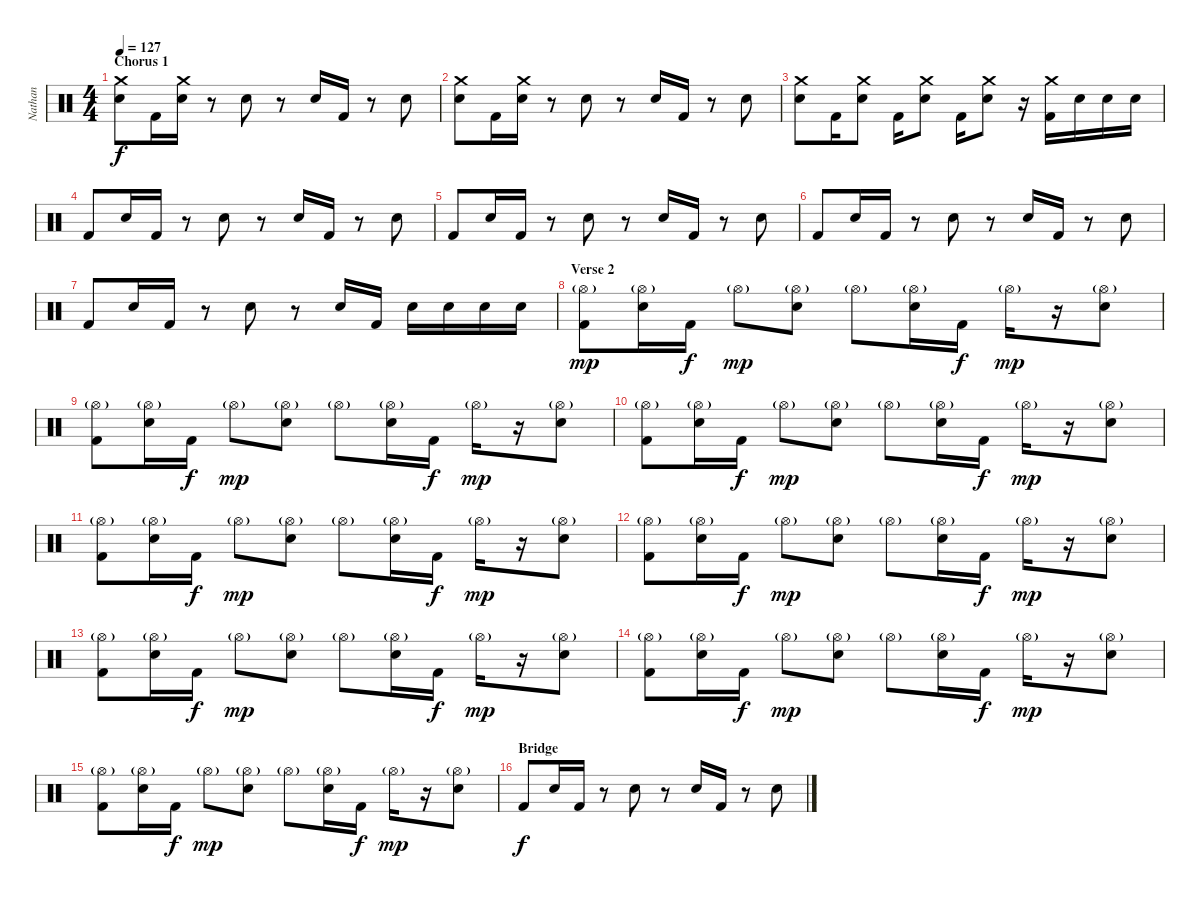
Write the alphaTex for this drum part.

\track ("Nathan" "Nathan") {instrument percussion}
\staff {score}
\articulation defaults
\ts (4 4)
\section ("" "Chorus 1")
\tempo 127
\clef neutral
\ks c
("Crash medium (hit)" "Electric Snare (hit)").8{dy f} "Kick (hit) 2".16 ("Crash medium (hit)" "Electric Snare (hit)").16 r.8 "Electric Snare (hit)".8 r.8 "Electric Snare (hit)".16 "Kick (hit) 2".16 r.8 "Electric Snare (hit)".8 |
("Crash medium (hit)" "Electric Snare (hit)").8 "Kick (hit) 2".16 ("Crash medium (hit)" "Electric Snare (hit)").16 r.8 "Electric Snare (hit)".8 r.8 "Electric Snare (hit)".16 "Kick (hit) 2".16 r.8 "Electric Snare (hit)".8 |
("Crash medium (hit)" "Electric Snare (hit)").8 "Kick (hit) 2".16 ("Crash medium (hit)" "Electric Snare (hit)").8 "Kick (hit) 2".16 ("Crash medium (hit)" "Electric Snare (hit)").8 "Kick (hit) 2".16 ("Crash medium (hit)" "Electric Snare (hit)").8 r.16 ("Crash medium (hit)" "Kick (hit) 2").16 "Electric Snare (hit)".16 "Electric Snare (hit)".16 "Electric Snare (hit)".16 |
"Kick (hit) 2".8 "Electric Snare (hit)".16 "Kick (hit) 2".16 r.8 "Electric Snare (hit)".8 r.8 "Electric Snare (hit)".16 "Kick (hit) 2".16 r.8 "Electric Snare (hit)".8 |
"Kick (hit) 2".8 "Electric Snare (hit)".16 "Kick (hit) 2".16 r.8 "Electric Snare (hit)".8 r.8 "Electric Snare (hit)".16 "Kick (hit) 2".16 r.8 "Electric Snare (hit)".8 |
"Kick (hit) 2".8 "Electric Snare (hit)".16 "Kick (hit) 2".16 r.8 "Electric Snare (hit)".8 r.8 "Electric Snare (hit)".16 "Kick (hit) 2".16 r.8 "Electric Snare (hit)".8 |
"Kick (hit) 2".8 "Electric Snare (hit)".16 "Kick (hit) 2".16 r.8 "Electric Snare (hit)".8 r.8 "Electric Snare (hit)".16 "Kick (hit) 2".16 "Electric Snare (hit)".16 "Electric Snare (hit)".16 "Electric Snare (hit)".16 "Electric Snare (hit)".16 |
\section ("" "Verse 2")
("Hi-Hat (open)"{g} "Kick (hit) 2").8{dy mp} ("Hi-Hat (open)"{g} "Electric Snare (hit)").16 "Kick (hit) 2".16{dy f} "Hi-Hat (open)"{g}.8{dy mp} ("Hi-Hat (open)"{g} "Electric Snare (hit)").8 "Hi-Hat (open)"{g}.8 ("Hi-Hat (open)"{g} "Electric Snare (hit)").16 "Kick (hit) 2".16{dy f} "Hi-Hat (open)"{g}.16{dy mp} r.16 ("Hi-Hat (open)"{g} "Electric Snare (hit)").8 |
("Hi-Hat (open)"{g} "Kick (hit) 2").8 ("Hi-Hat (open)"{g} "Electric Snare (hit)").16 "Kick (hit) 2".16{dy f} "Hi-Hat (open)"{g}.8{dy mp} ("Hi-Hat (open)"{g} "Electric Snare (hit)").8 "Hi-Hat (open)"{g}.8 ("Hi-Hat (open)"{g} "Electric Snare (hit)").16 "Kick (hit) 2".16{dy f} "Hi-Hat (open)"{g}.16{dy mp} r.16 ("Hi-Hat (open)"{g} "Electric Snare (hit)").8 |
("Hi-Hat (open)"{g} "Kick (hit) 2").8 ("Hi-Hat (open)"{g} "Electric Snare (hit)").16 "Kick (hit) 2".16{dy f} "Hi-Hat (open)"{g}.8{dy mp} ("Hi-Hat (open)"{g} "Electric Snare (hit)").8 "Hi-Hat (open)"{g}.8 ("Hi-Hat (open)"{g} "Electric Snare (hit)").16 "Kick (hit) 2".16{dy f} "Hi-Hat (open)"{g}.16{dy mp} r.16 ("Hi-Hat (open)"{g} "Electric Snare (hit)").8 |
("Hi-Hat (open)"{g} "Kick (hit) 2").8 ("Hi-Hat (open)"{g} "Electric Snare (hit)").16 "Kick (hit) 2".16{dy f} "Hi-Hat (open)"{g}.8{dy mp} ("Hi-Hat (open)"{g} "Electric Snare (hit)").8 "Hi-Hat (open)"{g}.8 ("Hi-Hat (open)"{g} "Electric Snare (hit)").16 "Kick (hit) 2".16{dy f} "Hi-Hat (open)"{g}.16{dy mp} r.16 ("Hi-Hat (open)"{g} "Electric Snare (hit)").8 |
("Hi-Hat (open)"{g} "Kick (hit) 2").8 ("Hi-Hat (open)"{g} "Electric Snare (hit)").16 "Kick (hit) 2".16{dy f} "Hi-Hat (open)"{g}.8{dy mp} ("Hi-Hat (open)"{g} "Electric Snare (hit)").8 "Hi-Hat (open)"{g}.8 ("Hi-Hat (open)"{g} "Electric Snare (hit)").16 "Kick (hit) 2".16{dy f} "Hi-Hat (open)"{g}.16{dy mp} r.16 ("Hi-Hat (open)"{g} "Electric Snare (hit)").8 |
("Hi-Hat (open)"{g} "Kick (hit) 2").8 ("Hi-Hat (open)"{g} "Electric Snare (hit)").16 "Kick (hit) 2".16{dy f} "Hi-Hat (open)"{g}.8{dy mp} ("Hi-Hat (open)"{g} "Electric Snare (hit)").8 "Hi-Hat (open)"{g}.8 ("Hi-Hat (open)"{g} "Electric Snare (hit)").16 "Kick (hit) 2".16{dy f} "Hi-Hat (open)"{g}.16{dy mp} r.16 ("Hi-Hat (open)"{g} "Electric Snare (hit)").8 |
("Hi-Hat (open)"{g} "Kick (hit) 2").8 ("Hi-Hat (open)"{g} "Electric Snare (hit)").16 "Kick (hit) 2".16{dy f} "Hi-Hat (open)"{g}.8{dy mp} ("Hi-Hat (open)"{g} "Electric Snare (hit)").8 "Hi-Hat (open)"{g}.8 ("Hi-Hat (open)"{g} "Electric Snare (hit)").16 "Kick (hit) 2".16{dy f} "Hi-Hat (open)"{g}.16{dy mp} r.16 ("Hi-Hat (open)"{g} "Electric Snare (hit)").8 |
("Hi-Hat (open)"{g} "Kick (hit) 2").8 ("Hi-Hat (open)"{g} "Electric Snare (hit)").16 "Kick (hit) 2".16{dy f} "Hi-Hat (open)"{g}.8{dy mp} ("Hi-Hat (open)"{g} "Electric Snare (hit)").8 "Hi-Hat (open)"{g}.8 ("Hi-Hat (open)"{g} "Electric Snare (hit)").16 "Kick (hit) 2".16{dy f} "Hi-Hat (open)"{g}.16{dy mp} r.16 ("Hi-Hat (open)"{g} "Electric Snare (hit)").8 |
\section ("" "Bridge")
"Kick (hit) 2".8{dy f} "Electric Snare (hit)".16 "Kick (hit) 2".16 r.8 "Electric Snare (hit)".8 r.8 "Electric Snare (hit)".16 "Kick (hit) 2".16 r.8 "Electric Snare (hit)".8
